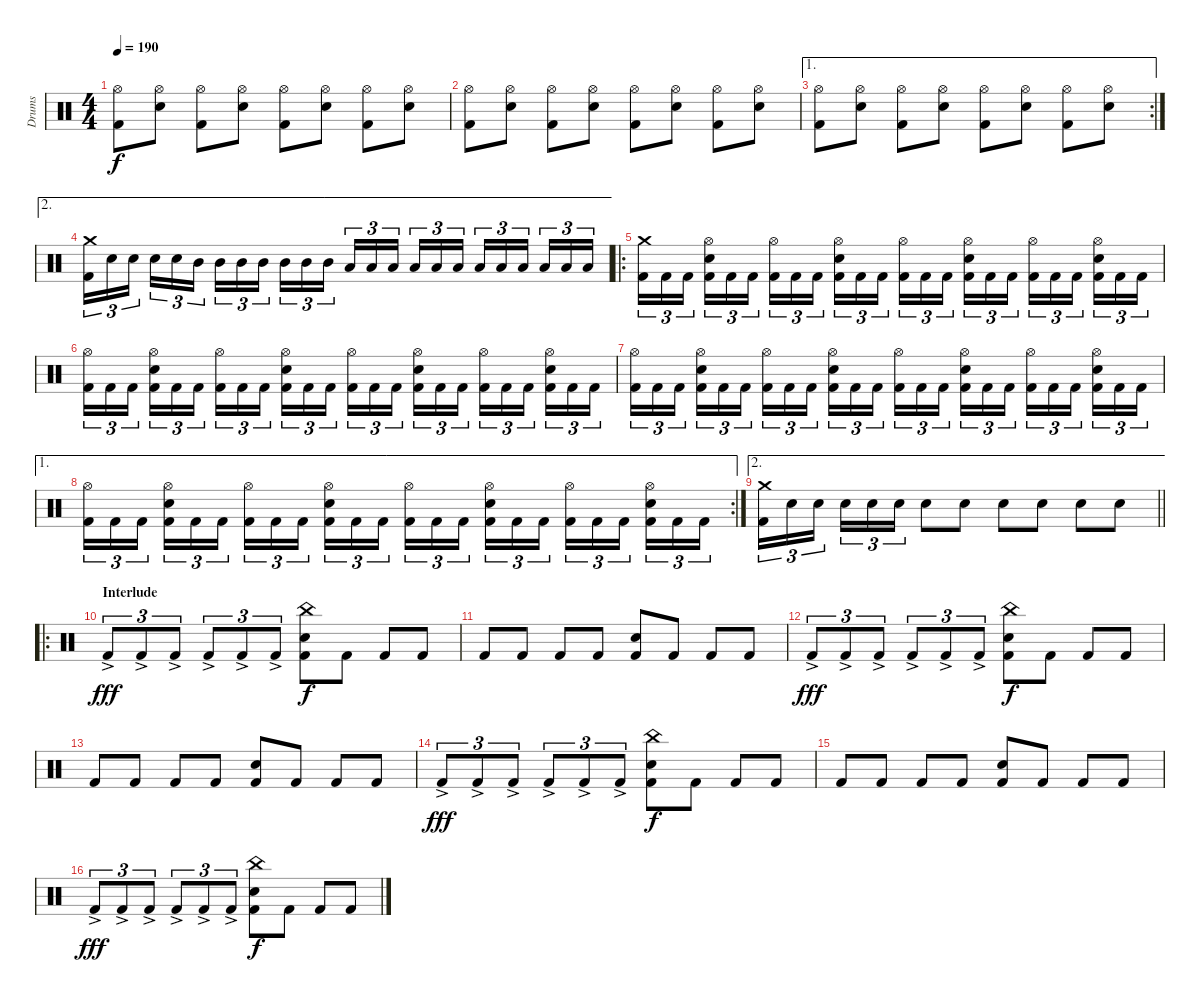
\track ("Drums" "Drums") {instrument percussion}
\staff {score}
\articulation defaults
\ts (4 4)
\tempo 190
\clef neutral
\ks c
("Hi-Hat (open)" "Kick (hit) 2").8{dy f} ("Hi-Hat (open)" "Snare (hit) 2").8 ("Hi-Hat (open)" "Kick (hit) 2").8 ("Hi-Hat (open)" "Snare (hit) 2").8 ("Hi-Hat (open)" "Kick (hit) 2").8 ("Hi-Hat (open)" "Snare (hit) 2").8 ("Hi-Hat (open)" "Kick (hit) 2").8 ("Hi-Hat (open)" "Snare (hit) 2").8 |
("Hi-Hat (open)" "Kick (hit) 2").8 ("Hi-Hat (open)" "Snare (hit) 2").8 ("Hi-Hat (open)" "Kick (hit) 2").8 ("Hi-Hat (open)" "Snare (hit) 2").8 ("Hi-Hat (open)" "Kick (hit) 2").8 ("Hi-Hat (open)" "Snare (hit) 2").8 ("Hi-Hat (open)" "Kick (hit) 2").8 ("Hi-Hat (open)" "Snare (hit) 2").8 |
\ae 1
\rc 2
("Hi-Hat (open)" "Kick (hit) 2").8 ("Hi-Hat (open)" "Snare (hit) 2").8 ("Hi-Hat (open)" "Kick (hit) 2").8 ("Hi-Hat (open)" "Snare (hit) 2").8 ("Hi-Hat (open)" "Kick (hit) 2").8 ("Hi-Hat (open)" "Snare (hit) 2").8 ("Hi-Hat (open)" "Kick (hit) 2").8 ("Hi-Hat (open)" "Snare (hit) 2").8 |
\ae 2
("Crash medium (hit)" "Kick (hit) 2").16{tu (3 2)} "Snare (hit) 2".16{tu (3 2)} "Snare (hit) 2".16{tu (3 2) beam splitsecondary} "Snare (hit) 2".16{tu (3 2)} "Snare (hit) 2".16{tu (3 2)} "Mid Tom (hit)".16{tu (3 2)} "Mid Tom (hit)".16{tu (3 2)} "Mid Tom (hit)".16{tu (3 2)} "Mid Tom (hit)".16{tu (3 2) beam splitsecondary} "Mid Tom (hit)".16{tu (3 2)} "Mid Tom (hit)".16{tu (3 2)} "Mid Tom (hit)".16{tu (3 2)} "Low Tom (hit)".16{tu (3 2)} "Low Tom (hit)".16{tu (3 2)} "Low Tom (hit)".16{tu (3 2) beam splitsecondary} "Low Tom (hit)".16{tu (3 2)} "Low Tom (hit)".16{tu (3 2)} "Low Tom (hit)".16{tu (3 2)} "Low Floor Tom (hit)".16{tu (3 2)} "Low Floor Tom (hit)".16{tu (3 2)} "Low Floor Tom (hit)".16{tu (3 2) beam splitsecondary} "Low Floor Tom (hit)".16{tu (3 2)} "Low Floor Tom (hit)".16{tu (3 2)} "Low Floor Tom (hit)".16{tu (3 2)} |
\ro
("Crash medium (hit)" "Kick (hit) 2").16{tu (3 2)} "Kick (hit) 2".16{tu (3 2)} "Kick (hit) 2".16{tu (3 2) beam splitsecondary} ("Hi-Hat (open)" "Snare (hit) 2" "Kick (hit) 2").16{tu (3 2)} "Kick (hit) 2".16{tu (3 2)} "Kick (hit) 2".16{tu (3 2)} ("Hi-Hat (open)" "Kick (hit) 2").16{tu (3 2)} "Kick (hit) 2".16{tu (3 2)} "Kick (hit) 2".16{tu (3 2) beam splitsecondary} ("Hi-Hat (open)" "Snare (hit) 2" "Kick (hit) 2").16{tu (3 2)} "Kick (hit) 2".16{tu (3 2)} "Kick (hit) 2".16{tu (3 2)} ("Hi-Hat (open)" "Kick (hit) 2").16{tu (3 2)} "Kick (hit) 2".16{tu (3 2)} "Kick (hit) 2".16{tu (3 2) beam splitsecondary} ("Hi-Hat (open)" "Snare (hit) 2" "Kick (hit) 2").16{tu (3 2)} "Kick (hit) 2".16{tu (3 2)} "Kick (hit) 2".16{tu (3 2)} ("Hi-Hat (open)" "Kick (hit) 2").16{tu (3 2)} "Kick (hit) 2".16{tu (3 2)} "Kick (hit) 2".16{tu (3 2) beam splitsecondary} ("Hi-Hat (open)" "Snare (hit) 2" "Kick (hit) 2").16{tu (3 2)} "Kick (hit) 2".16{tu (3 2)} "Kick (hit) 2".16{tu (3 2)} |
("Hi-Hat (open)" "Kick (hit) 2").16{tu (3 2)} "Kick (hit) 2".16{tu (3 2)} "Kick (hit) 2".16{tu (3 2) beam splitsecondary} ("Hi-Hat (open)" "Snare (hit) 2" "Kick (hit) 2").16{tu (3 2)} "Kick (hit) 2".16{tu (3 2)} "Kick (hit) 2".16{tu (3 2)} ("Hi-Hat (open)" "Kick (hit) 2").16{tu (3 2)} "Kick (hit) 2".16{tu (3 2)} "Kick (hit) 2".16{tu (3 2) beam splitsecondary} ("Hi-Hat (open)" "Snare (hit) 2" "Kick (hit) 2").16{tu (3 2)} "Kick (hit) 2".16{tu (3 2)} "Kick (hit) 2".16{tu (3 2)} ("Hi-Hat (open)" "Kick (hit) 2").16{tu (3 2)} "Kick (hit) 2".16{tu (3 2)} "Kick (hit) 2".16{tu (3 2) beam splitsecondary} ("Hi-Hat (open)" "Snare (hit) 2" "Kick (hit) 2").16{tu (3 2)} "Kick (hit) 2".16{tu (3 2)} "Kick (hit) 2".16{tu (3 2)} ("Hi-Hat (open)" "Kick (hit) 2").16{tu (3 2)} "Kick (hit) 2".16{tu (3 2)} "Kick (hit) 2".16{tu (3 2) beam splitsecondary} ("Hi-Hat (open)" "Snare (hit) 2" "Kick (hit) 2").16{tu (3 2)} "Kick (hit) 2".16{tu (3 2)} "Kick (hit) 2".16{tu (3 2)} |
("Hi-Hat (open)" "Kick (hit) 2").16{tu (3 2)} "Kick (hit) 2".16{tu (3 2)} "Kick (hit) 2".16{tu (3 2) beam splitsecondary} ("Hi-Hat (open)" "Snare (hit) 2" "Kick (hit) 2").16{tu (3 2)} "Kick (hit) 2".16{tu (3 2)} "Kick (hit) 2".16{tu (3 2)} ("Hi-Hat (open)" "Kick (hit) 2").16{tu (3 2)} "Kick (hit) 2".16{tu (3 2)} "Kick (hit) 2".16{tu (3 2) beam splitsecondary} ("Hi-Hat (open)" "Snare (hit) 2" "Kick (hit) 2").16{tu (3 2)} "Kick (hit) 2".16{tu (3 2)} "Kick (hit) 2".16{tu (3 2)} ("Hi-Hat (open)" "Kick (hit) 2").16{tu (3 2)} "Kick (hit) 2".16{tu (3 2)} "Kick (hit) 2".16{tu (3 2) beam splitsecondary} ("Hi-Hat (open)" "Snare (hit) 2" "Kick (hit) 2").16{tu (3 2)} "Kick (hit) 2".16{tu (3 2)} "Kick (hit) 2".16{tu (3 2)} ("Hi-Hat (open)" "Kick (hit) 2").16{tu (3 2)} "Kick (hit) 2".16{tu (3 2)} "Kick (hit) 2".16{tu (3 2) beam splitsecondary} ("Hi-Hat (open)" "Snare (hit) 2" "Kick (hit) 2").16{tu (3 2)} "Kick (hit) 2".16{tu (3 2)} "Kick (hit) 2".16{tu (3 2)} |
\ae 1
\rc 2
("Hi-Hat (open)" "Kick (hit) 2").16{tu (3 2)} "Kick (hit) 2".16{tu (3 2)} "Kick (hit) 2".16{tu (3 2) beam splitsecondary} ("Hi-Hat (open)" "Snare (hit) 2" "Kick (hit) 2").16{tu (3 2)} "Kick (hit) 2".16{tu (3 2)} "Kick (hit) 2".16{tu (3 2)} ("Hi-Hat (open)" "Kick (hit) 2").16{tu (3 2)} "Kick (hit) 2".16{tu (3 2)} "Kick (hit) 2".16{tu (3 2) beam splitsecondary} ("Hi-Hat (open)" "Snare (hit) 2" "Kick (hit) 2").16{tu (3 2)} "Kick (hit) 2".16{tu (3 2)} "Kick (hit) 2".16{tu (3 2)} ("Hi-Hat (open)" "Kick (hit) 2").16{tu (3 2)} "Kick (hit) 2".16{tu (3 2)} "Kick (hit) 2".16{tu (3 2) beam splitsecondary} ("Hi-Hat (open)" "Snare (hit) 2" "Kick (hit) 2").16{tu (3 2)} "Kick (hit) 2".16{tu (3 2)} "Kick (hit) 2".16{tu (3 2)} ("Hi-Hat (open)" "Kick (hit) 2").16{tu (3 2)} "Kick (hit) 2".16{tu (3 2)} "Kick (hit) 2".16{tu (3 2) beam splitsecondary} ("Hi-Hat (open)" "Snare (hit) 2" "Kick (hit) 2").16{tu (3 2)} "Kick (hit) 2".16{tu (3 2)} "Kick (hit) 2".16{tu (3 2)} |
\ae 2
\barLineRight lightlight
("Crash medium (hit)" "Kick (hit) 2").16{tu (3 2)} "Snare (hit) 2".16{tu (3 2)} "Snare (hit) 2".16{tu (3 2) beam splitsecondary} "Snare (hit) 2".16{tu (3 2)} "Snare (hit) 2".16{tu (3 2)} "Snare (hit) 2".16{tu (3 2)} "Snare (hit) 2".8 "Snare (hit) 2".8 "Snare (hit) 2".8 "Snare (hit) 2".8 "Snare (hit) 2".8 "Snare (hit) 2".8 |
\ro
\section ("" "Interlude")
"Kick (hit) 2"{ac}.8{tu (3 2) dy fff} "Kick (hit) 2"{ac}.8{tu (3 2)} "Kick (hit) 2"{ac}.8{tu (3 2)} "Kick (hit) 2"{ac}.8{tu (3 2)} "Kick (hit) 2"{ac}.8{tu (3 2)} "Kick (hit) 2"{ac}.8{tu (3 2)} ("China (hit)" "Snare (hit) 2" "Kick (hit) 2").8{dy f} "Kick (hit) 2".8 "Kick (hit) 2".8 "Kick (hit) 2".8 |
"Kick (hit) 2".8 "Kick (hit) 2".8 "Kick (hit) 2".8 "Kick (hit) 2".8 ("Snare (hit) 2" "Kick (hit) 2").8 "Kick (hit) 2".8 "Kick (hit) 2".8 "Kick (hit) 2".8 |
"Kick (hit) 2"{ac}.8{tu (3 2) dy fff} "Kick (hit) 2"{ac}.8{tu (3 2)} "Kick (hit) 2"{ac}.8{tu (3 2)} "Kick (hit) 2"{ac}.8{tu (3 2)} "Kick (hit) 2"{ac}.8{tu (3 2)} "Kick (hit) 2"{ac}.8{tu (3 2)} ("China (hit)" "Snare (hit) 2" "Kick (hit) 2").8{dy f} "Kick (hit) 2".8 "Kick (hit) 2".8 "Kick (hit) 2".8 |
"Kick (hit) 2".8 "Kick (hit) 2".8 "Kick (hit) 2".8 "Kick (hit) 2".8 ("Snare (hit) 2" "Kick (hit) 2").8 "Kick (hit) 2".8 "Kick (hit) 2".8 "Kick (hit) 2".8 |
"Kick (hit) 2"{ac}.8{tu (3 2) dy fff} "Kick (hit) 2"{ac}.8{tu (3 2)} "Kick (hit) 2"{ac}.8{tu (3 2)} "Kick (hit) 2"{ac}.8{tu (3 2)} "Kick (hit) 2"{ac}.8{tu (3 2)} "Kick (hit) 2"{ac}.8{tu (3 2)} ("China (hit)" "Snare (hit) 2" "Kick (hit) 2").8{dy f} "Kick (hit) 2".8 "Kick (hit) 2".8 "Kick (hit) 2".8 |
"Kick (hit) 2".8 "Kick (hit) 2".8 "Kick (hit) 2".8 "Kick (hit) 2".8 ("Snare (hit) 2" "Kick (hit) 2").8 "Kick (hit) 2".8 "Kick (hit) 2".8 "Kick (hit) 2".8 |
"Kick (hit) 2"{ac}.8{tu (3 2) dy fff} "Kick (hit) 2"{ac}.8{tu (3 2)} "Kick (hit) 2"{ac}.8{tu (3 2)} "Kick (hit) 2"{ac}.8{tu (3 2)} "Kick (hit) 2"{ac}.8{tu (3 2)} "Kick (hit) 2"{ac}.8{tu (3 2)} ("China (hit)" "Snare (hit) 2" "Kick (hit) 2").8{dy f} "Kick (hit) 2".8 "Kick (hit) 2".8 "Kick (hit) 2".8
